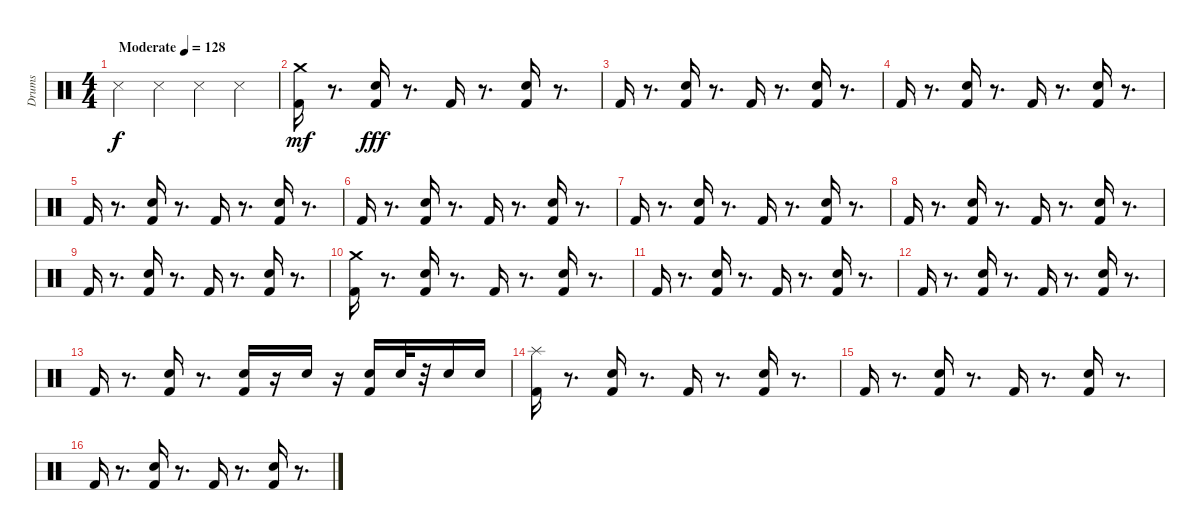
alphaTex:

\track ("Drums" "Drums") {instrument percussion}
\staff {score}
\articulation defaults
\ts (4 4)
\tempo (128 "Moderate")
\clef neutral
\ks c "Metronome (hit)".4{dy f} "Metronome (hit)".4 "Metronome (hit)".4 "Metronome (hit)".4
|
("Kick (hit) 2" "Crash medium (hit)").16{dy mf} r.8{d} ("Kick (hit) 2" "Electric Snare (hit)").16{dy fff} r.8{d} "Kick (hit) 2".16 r.8{d} ("Kick (hit) 2" "Electric Snare (hit)").16 r.8{d} |
"Kick (hit) 2".16 r.8{d} ("Kick (hit) 2" "Electric Snare (hit)").16 r.8{d} "Kick (hit) 2".16 r.8{d} ("Kick (hit) 2" "Electric Snare (hit)").16 r.8{d} |
"Kick (hit) 2".16 r.8{d} ("Kick (hit) 2" "Electric Snare (hit)").16 r.8{d} "Kick (hit) 2".16 r.8{d} ("Kick (hit) 2" "Electric Snare (hit)").16 r.8{d} |
"Kick (hit) 2".16 r.8{d} ("Kick (hit) 2" "Electric Snare (hit)").16 r.8{d} "Kick (hit) 2".16 r.8{d} ("Kick (hit) 2" "Electric Snare (hit)").16 r.8{d} |
"Kick (hit) 2".16 r.8{d} ("Kick (hit) 2" "Electric Snare (hit)").16 r.8{d} "Kick (hit) 2".16 r.8{d} ("Kick (hit) 2" "Electric Snare (hit)").16 r.8{d} |
"Kick (hit) 2".16 r.8{d} ("Kick (hit) 2" "Electric Snare (hit)").16 r.8{d} "Kick (hit) 2".16 r.8{d} ("Electric Snare (hit)" "Kick (hit) 2").16 r.8{d} |
"Kick (hit) 2".16 r.8{d} ("Kick (hit) 2" "Electric Snare (hit)").16 r.8{d} "Kick (hit) 2".16 r.8{d} ("Kick (hit) 2" "Electric Snare (hit)").16 r.8{d} |
"Kick (hit) 2".16 r.8{d} ("Kick (hit) 2" "Electric Snare (hit)").16 r.8{d} "Kick (hit) 2".16 r.8{d} ("Kick (hit) 2" "Electric Snare (hit)").16 r.8{d} |
("Crash medium (hit)" "Kick (hit) 2").16 r.8{d} ("Kick (hit) 2" "Electric Snare (hit)").16 r.8{d} "Kick (hit) 2".16 r.8{d} ("Kick (hit) 2" "Electric Snare (hit)").16 r.8{d} |
"Kick (hit) 2".16 r.8{d} ("Kick (hit) 2" "Electric Snare (hit)").16 r.8{d} "Kick (hit) 2".16 r.8{d} ("Kick (hit) 2" "Electric Snare (hit)").16 r.8{d} |
"Kick (hit) 2".16 r.8{d} ("Kick (hit) 2" "Electric Snare (hit)").16 r.8{d} "Kick (hit) 2".16 r.8{d} ("Kick (hit) 2" "Electric Snare (hit)").16 r.8{d} |
"Kick (hit) 2".16 r.8{d} ("Kick (hit) 2" "Electric Snare (hit)").16 r.8{d} ("Kick (hit) 2" "Electric Snare (hit)").16 r.16 "Electric Snare (hit)".16 r.16 ("Kick (hit) 2" "Electric Snare (hit)").16 "Electric Snare (hit)".32 r.32 "Electric Snare (hit)".16 "Electric Snare (hit)".16 |
("Kick (hit) 2" "Splash (hit)").16 r.8{d} ("Kick (hit) 2" "Electric Snare (hit)").16 r.8{d} "Kick (hit) 2".16 r.8{d} ("Kick (hit) 2" "Electric Snare (hit)").16 r.8{d} |
"Kick (hit) 2".16 r.8{d} ("Kick (hit) 2" "Electric Snare (hit)").16 r.8{d} "Kick (hit) 2".16 r.8{d} ("Kick (hit) 2" "Electric Snare (hit)").16 r.8{d} |
"Kick (hit) 2".16 r.8{d} ("Kick (hit) 2" "Electric Snare (hit)").16 r.8{d} "Kick (hit) 2".16 r.8{d} ("Kick (hit) 2" "Electric Snare (hit)").16 r.8{d}
